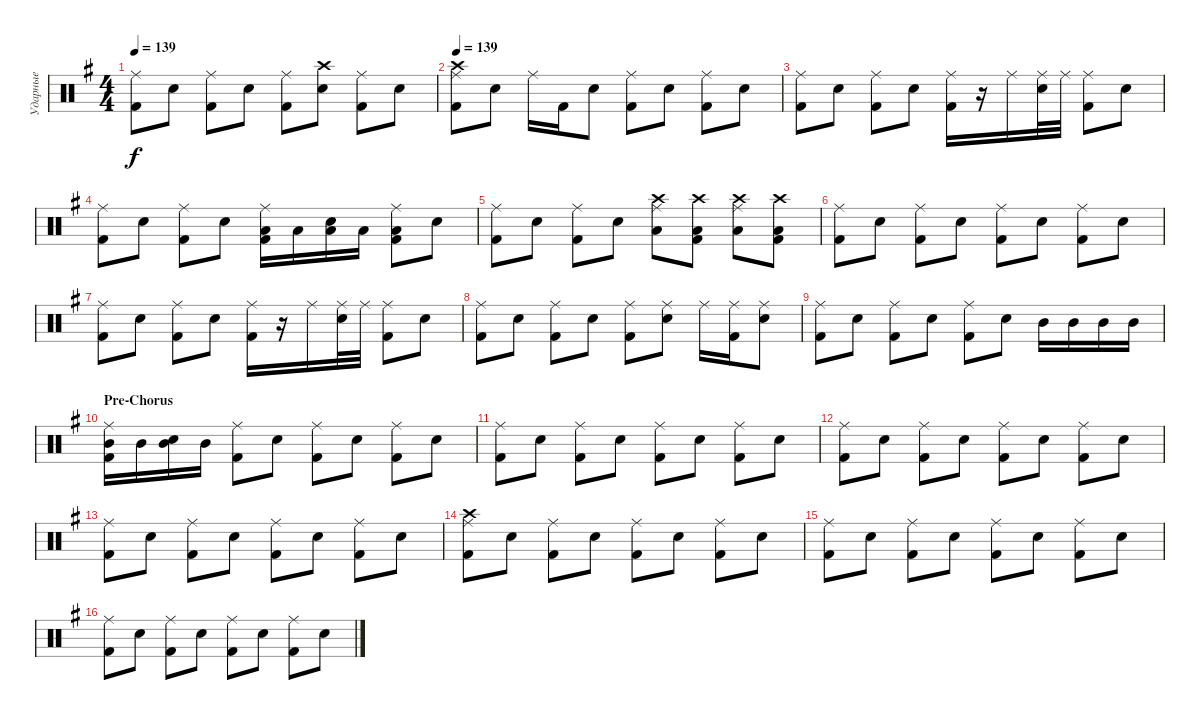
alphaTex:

\track ("Ударные" "Ударные") {instrument percussion}
\staff {score}
\articulation defaults
\ts (4 4)
\tempo 139
\clef neutral
\ks eminor
("Ride (middle)" "Kick (hit) 2").8{dy f} "Snare (hit) 2".8 ("Ride (middle)" "Kick (hit) 2").8 "Snare (hit) 2".8 ("Ride (middle)" "Kick (hit) 2").8 ("Crash high (hit)" "Snare (hit) 2").8 ("Ride (middle)" "Kick (hit) 2").8 "Snare (hit) 2".8 |
\tempo 139
("Crash high (hit)" "Ride (middle)" "Kick (hit) 2").8 "Snare (hit) 2".8 "Ride (middle)".16 "Kick (hit) 2".16 "Snare (hit) 2".8 ("Ride (middle)" "Kick (hit) 2").8 "Snare (hit) 2".8 ("Ride (middle)" "Kick (hit) 2").8 "Snare (hit) 2".8 |
("Ride (middle)" "Kick (hit) 2").8 "Snare (hit) 2".8 ("Ride (middle)" "Kick (hit) 2").8 "Snare (hit) 2".8 ("Ride (middle)" "Kick (hit) 2").16 r.16 "Ride (middle)".16 ("Ride (middle)" "Snare (hit) 2").32 "Ride (middle)".32 ("Ride (middle)" "Kick (hit) 2").8 "Snare (hit) 2".8 |
("Ride (middle)" "Kick (hit) 2").8 "Snare (hit) 2".8 ("Ride (middle)" "Kick (hit) 2").8 "Snare (hit) 2".8 ("Low Tom (hit)" "Ride (middle)" "Kick (hit) 2").16 "Low Tom (hit)".16 ("Low Tom (hit)" "Snare (hit) 2").16 "Low Tom (hit)".16 ("Low Tom (hit)" "Ride (middle)" "Kick (hit) 2").8 "Snare (hit) 2".8 |
("Ride (middle)" "Kick (hit) 2").8 "Snare (hit) 2".8 ("Ride (middle)" "Kick (hit) 2").8 "Snare (hit) 2".8 ("Crash high (hit)" "Ride (middle)" "Low Tom (hit)").8 ("Crash high (hit)" "Kick (hit) 2" "Low Tom (hit)").8 ("Crash high (hit)" "Ride (middle)" "Low Tom (hit)").8 ("Crash high (hit)" "Kick (hit) 2" "Low Tom (hit)").8 |
("Ride (middle)" "Kick (hit) 2").8 "Snare (hit) 2".8 ("Ride (middle)" "Kick (hit) 2").8 "Snare (hit) 2".8 ("Ride (middle)" "Kick (hit) 2").8 "Snare (hit) 2".8 ("Ride (middle)" "Kick (hit) 2").8 "Snare (hit) 2".8 |
("Ride (middle)" "Kick (hit) 2").8 "Snare (hit) 2".8 ("Ride (middle)" "Kick (hit) 2").8 "Snare (hit) 2".8 ("Ride (middle)" "Kick (hit) 2").16 r.16 "Ride (middle)".16 ("Ride (middle)" "Snare (hit) 2").32 "Ride (middle)".32 ("Ride (middle)" "Kick (hit) 2").8 "Snare (hit) 2".8 |
("Ride (middle)" "Kick (hit) 2").8 "Snare (hit) 2".8 ("Ride (middle)" "Kick (hit) 2").8 "Snare (hit) 2".8 ("Ride (middle)" "Kick (hit) 2").8 ("Ride (middle)" "Snare (hit) 2").8 "Ride (middle)".16 ("Ride (middle)" "Kick (hit) 2").16 ("Ride (middle)" "Snare (hit) 2").8 |
("Ride (middle)" "Kick (hit) 2").8 "Snare (hit) 2".8 ("Ride (middle)" "Kick (hit) 2").8 "Snare (hit) 2".8 ("Ride (middle)" "Kick (hit) 2").8 "Snare (hit) 2".8 "Mid Tom (hit)".16 "Mid Tom (hit)".16 "Mid Tom (hit)".16 "Mid Tom (hit)".16 |
\section ("" "Pre-Chorus")
("Ride (middle)" "Mid Tom (hit)" "Kick (hit) 2").16 "Mid Tom (hit)".16 ("Snare (hit) 2" "Mid Tom (hit)").16 "Mid Tom (hit)".16 ("Ride (middle)" "Kick (hit) 2").8 "Snare (hit) 2".8 ("Ride (middle)" "Kick (hit) 2").8 "Snare (hit) 2".8 ("Ride (middle)" "Kick (hit) 2").8 "Snare (hit) 2".8 |
("Ride (middle)" "Kick (hit) 2").8 "Snare (hit) 2".8 ("Ride (middle)" "Kick (hit) 2").8 "Snare (hit) 2".8 ("Ride (middle)" "Kick (hit) 2").8 "Snare (hit) 2".8 ("Ride (middle)" "Kick (hit) 2").8 "Snare (hit) 2".8 |
("Ride (middle)" "Kick (hit) 2").8 "Snare (hit) 2".8 ("Ride (middle)" "Kick (hit) 2").8 "Snare (hit) 2".8 ("Ride (middle)" "Kick (hit) 2").8 "Snare (hit) 2".8 ("Ride (middle)" "Kick (hit) 2").8 "Snare (hit) 2".8 |
("Ride (middle)" "Kick (hit) 2").8 "Snare (hit) 2".8 ("Ride (middle)" "Kick (hit) 2").8 "Snare (hit) 2".8 ("Ride (middle)" "Kick (hit) 2").8 "Snare (hit) 2".8 ("Ride (middle)" "Kick (hit) 2").8 "Snare (hit) 2".8 |
("Ride (middle)" "Crash high (hit)" "Kick (hit) 2").8 "Snare (hit) 2".8 ("Ride (middle)" "Kick (hit) 2").8 "Snare (hit) 2".8 ("Ride (middle)" "Kick (hit) 2").8 "Snare (hit) 2".8 ("Ride (middle)" "Kick (hit) 2").8 "Snare (hit) 2".8 |
("Ride (middle)" "Kick (hit) 2").8 "Snare (hit) 2".8 ("Ride (middle)" "Kick (hit) 2").8 "Snare (hit) 2".8 ("Ride (middle)" "Kick (hit) 2").8 "Snare (hit) 2".8 ("Ride (middle)" "Kick (hit) 2").8 "Snare (hit) 2".8 |
("Ride (middle)" "Kick (hit) 2").8 "Snare (hit) 2".8 ("Ride (middle)" "Kick (hit) 2").8 "Snare (hit) 2".8 ("Ride (middle)" "Kick (hit) 2").8 "Snare (hit) 2".8 ("Ride (middle)" "Kick (hit) 2").8 "Snare (hit) 2".8
